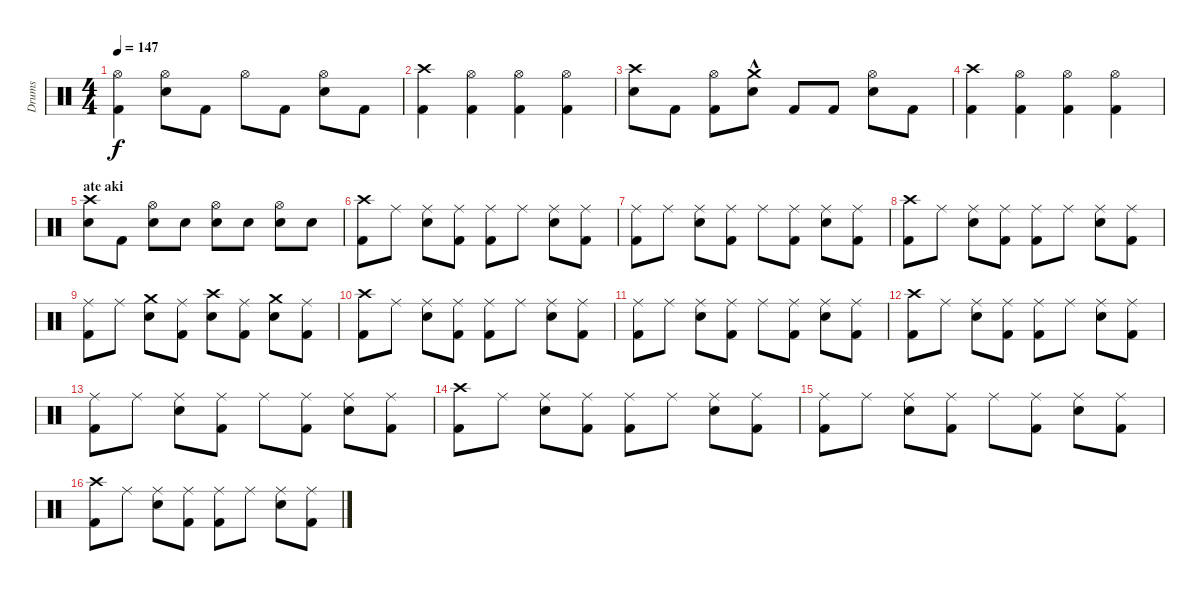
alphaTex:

\track ("Drums" "Drums") {instrument percussion}
\staff {score}
\articulation defaults
\ts (4 4)
\tempo 147
\clef neutral
\ks c
("Kick (hit) 2" "Hi-Hat (open)").4{dy f} ("Electric Snare (hit)" "Hi-Hat (open)").8 "Kick (hit) 2".8 "Hi-Hat (open)".8 "Kick (hit) 2".8 ("Electric Snare (hit)" "Hi-Hat (open)").8 "Kick (hit) 2".8 |
("Kick (hit) 2" "Crash high (hit)").4 ("Kick (hit) 2" "Hi-Hat (open)").4 ("Kick (hit) 2" "Hi-Hat (open)").4 ("Kick (hit) 2" "Hi-Hat (open)").4 |
("Electric Snare (hit)" "Crash high (hit)").8 "Kick (hit) 2".8 ("Kick (hit) 2" "Hi-Hat (open)").8 ("Electric Snare (hit)" "Crash medium (hit)"{hac}).8 "Kick (hit) 2".8 "Kick (hit) 2".8 ("Electric Snare (hit)" "Hi-Hat (open)").8 "Kick (hit) 2".8 |
("Kick (hit) 2" "Crash high (hit)").4 ("Kick (hit) 2" "Hi-Hat (open)").4 ("Kick (hit) 2" "Hi-Hat (open)").4 ("Kick (hit) 2" "Hi-Hat (open)").4 |
\section ("" "ate aki")
("Electric Snare (hit)" "Crash high (hit)").8 "Kick (hit) 2".8 ("Electric Snare (hit)" "Hi-Hat (open)").8 "Electric Snare (hit)".8 ("Electric Snare (hit)" "Hi-Hat (open)").8 "Electric Snare (hit)".8 ("Electric Snare (hit)" "Hi-Hat (open)").8 "Electric Snare (hit)".8 |
("Kick (hit) 2" "Crash high (hit)").8 "Ride (middle)".8 ("Electric Snare (hit)" "Ride (middle)").8 ("Ride (middle)" "Kick (hit) 2").8 ("Kick (hit) 2" "Ride (middle)").8 "Ride (middle)".8 ("Electric Snare (hit)" "Ride (middle)").8 ("Ride (middle)" "Kick (hit) 2").8 |
("Kick (hit) 2" "Ride (middle)").8 "Ride (middle)".8 ("Electric Snare (hit)" "Ride (middle)").8 ("Ride (middle)" "Kick (hit) 2").8 "Ride (middle)".8 ("Ride (middle)" "Kick (hit) 2").8 ("Electric Snare (hit)" "Ride (middle)").8 ("Ride (middle)" "Kick (hit) 2").8 |
("Kick (hit) 2" "Crash high (hit)").8 "Ride (middle)".8 ("Electric Snare (hit)" "Ride (middle)").8 ("Ride (middle)" "Kick (hit) 2").8 ("Kick (hit) 2" "Ride (middle)").8 "Ride (middle)".8 ("Electric Snare (hit)" "Ride (middle)").8 ("Ride (middle)" "Kick (hit) 2").8 |
("Kick (hit) 2" "Ride (middle)").8 "Ride (middle)".8 ("Electric Snare (hit)" "Crash medium (hit)").8 ("Ride (middle)" "Kick (hit) 2").8 ("Electric Snare (hit)" "Crash high (hit)").8 ("Ride (middle)" "Kick (hit) 2").8 ("Electric Snare (hit)" "Crash medium (hit)").8 ("Ride (middle)" "Kick (hit) 2").8 |
("Kick (hit) 2" "Crash high (hit)").8 "Ride (middle)".8 ("Electric Snare (hit)" "Ride (middle)").8 ("Ride (middle)" "Kick (hit) 2").8 ("Kick (hit) 2" "Ride (middle)").8 "Ride (middle)".8 ("Electric Snare (hit)" "Ride (middle)").8 ("Ride (middle)" "Kick (hit) 2").8 |
("Kick (hit) 2" "Ride (middle)").8 "Ride (middle)".8 ("Electric Snare (hit)" "Ride (middle)").8 ("Ride (middle)" "Kick (hit) 2").8 "Ride (middle)".8 ("Ride (middle)" "Kick (hit) 2").8 ("Electric Snare (hit)" "Ride (middle)").8 ("Ride (middle)" "Kick (hit) 2").8 |
("Kick (hit) 2" "Crash high (hit)").8 "Ride (middle)".8 ("Electric Snare (hit)" "Ride (middle)").8 ("Ride (middle)" "Kick (hit) 2").8 ("Kick (hit) 2" "Ride (middle)").8 "Ride (middle)".8 ("Electric Snare (hit)" "Ride (middle)").8 ("Ride (middle)" "Kick (hit) 2").8 |
("Kick (hit) 2" "Ride (middle)").8 "Ride (middle)".8 ("Electric Snare (hit)" "Ride (middle)").8 ("Ride (middle)" "Kick (hit) 2").8 "Ride (middle)".8 ("Ride (middle)" "Kick (hit) 2").8 ("Electric Snare (hit)" "Ride (middle)").8 ("Ride (middle)" "Kick (hit) 2").8 |
("Kick (hit) 2" "Crash high (hit)").8 "Ride (middle)".8 ("Electric Snare (hit)" "Ride (middle)").8 ("Ride (middle)" "Kick (hit) 2").8 ("Kick (hit) 2" "Ride (middle)").8 "Ride (middle)".8 ("Electric Snare (hit)" "Ride (middle)").8 ("Ride (middle)" "Kick (hit) 2").8 |
("Kick (hit) 2" "Ride (middle)").8 "Ride (middle)".8 ("Electric Snare (hit)" "Ride (middle)").8 ("Ride (middle)" "Kick (hit) 2").8 "Ride (middle)".8 ("Ride (middle)" "Kick (hit) 2").8 ("Electric Snare (hit)" "Ride (middle)").8 ("Ride (middle)" "Kick (hit) 2").8 |
("Kick (hit) 2" "Crash high (hit)").8 "Ride (middle)".8 ("Electric Snare (hit)" "Ride (middle)").8 ("Ride (middle)" "Kick (hit) 2").8 ("Kick (hit) 2" "Ride (middle)").8 "Ride (middle)".8 ("Electric Snare (hit)" "Ride (middle)").8 ("Ride (middle)" "Kick (hit) 2").8
